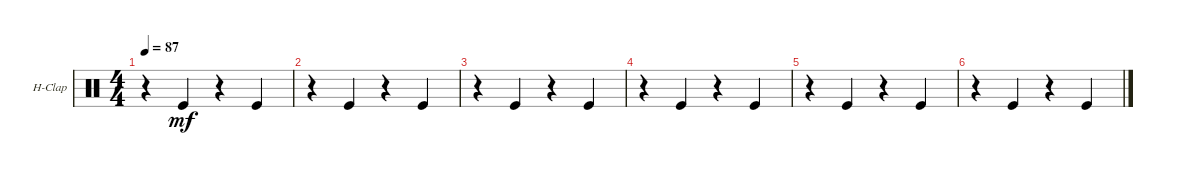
\defaultSystemsLayout 4
\bracketExtendMode groupsimilarinstruments
\firstSystemTrackNameOrientation horizontal
\otherSystemsTrackNameOrientation horizontal
\track ("Hand Clap" "H-Clap") {instrument percussion}
\staff {score}
\articulation defaults
\ts (4 4)
\tempo 87
\clef neutral
\scale
0.333333
\ks c
r.4{dy mf} "Kick (hit)".4 r.4 "Kick (hit)".4 |
\scale
0.333333 r.4 "Kick (hit)".4 r.4 "Kick (hit)".4 |
\scale
0.333333 r.4 "Kick (hit)".4 r.4 "Kick (hit)".4 |
\scale
0.333333 r.4 "Kick (hit)".4 r.4 "Kick (hit)".4 |
\scale
0.333333 r.4 "Kick (hit)".4 r.4 "Kick (hit)".4 |
\scale
0.333333 r.4 "Kick (hit)".4 r.4 "Kick (hit)".4 |
\scale
0.333333 |
\scale
0.333333 |
\scale
0.333333 |
\scale
0.333333 |
\scale
0.333333 |
\scale
0.333333 |
\scale
0.333333 |
\scale
0.333333 |
\scale
0.333333 |
\scale
0.333333
